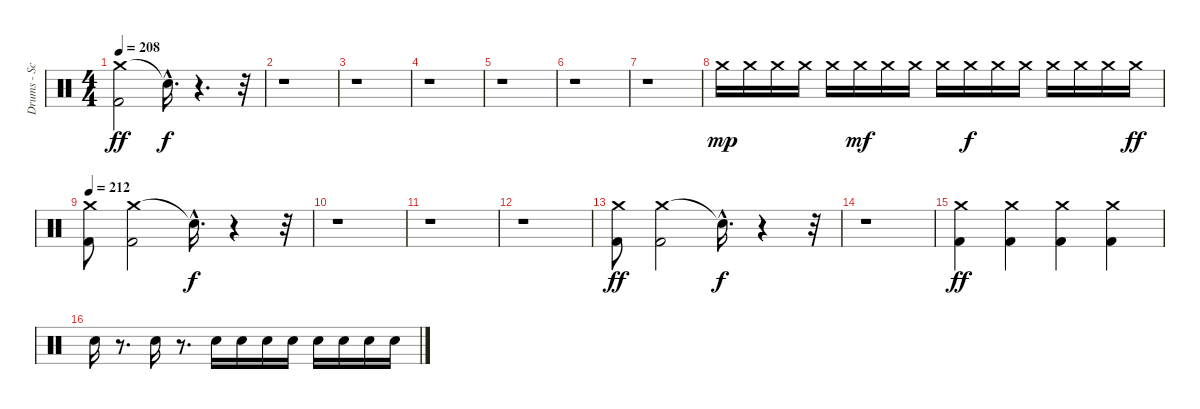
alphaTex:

\track ("Drums - Scott" "Drums - Sc") {instrument percussion}
\staff {score}
\articulation defaults
\ts (4 4)
\tempo 208
\clef neutral
\ks c
("Crash medium (hit)" "Kick (hit) 2").2{dy ff} "Snare (hit)"{hac t}.16{d dy f} r.4{d} r.32 |
r.1 |
r.1 |
r.1 |
r.1 |
r.1 |
r.1 |
"Crash medium (hit)".16{dy mp} "Crash medium (hit)".16 "Crash medium (hit)".16 "Crash medium (hit)".16 "Crash medium (hit)".16 "Crash medium (hit)".16{dy mf} "Crash medium (hit)".16 "Crash medium (hit)".16 "Crash medium (hit)".16 "Crash medium (hit)".16{dy f} "Crash medium (hit)".16 "Crash medium (hit)".16 "Crash medium (hit)".16 "Crash medium (hit)".16 "Crash medium (hit)".16 "Crash medium (hit)".16{dy ff} |
\tempo 212
("Crash medium (hit)" "Kick (hit) 2").8 ("Crash medium (hit)" "Kick (hit) 2").2 "Snare (hit)"{hac t}.16{d dy f} r.4 r.32 |
r.1 |
r.1 |
r.1 |
("Crash medium (hit)" "Kick (hit) 2").8{dy ff} ("Crash medium (hit)" "Kick (hit) 2").2 "Snare (hit)"{hac t}.16{d dy f} r.4 r.32 |
r.1 |
("Kick (hit) 2" "Crash medium (hit)").4{dy ff} ("Kick (hit) 2" "Crash medium (hit)").4 ("Kick (hit) 2" "Crash medium (hit)").4 ("Kick (hit) 2" "Crash medium (hit)").4 |
"Electric Snare (hit)".16 r.8{d} "Electric Snare (hit)".16 r.8{d} "Electric Snare (hit)".16 "Electric Snare (hit)".16 "Electric Snare (hit)".16 "Electric Snare (hit)".16 "Electric Snare (hit)".16 "Electric Snare (hit)".16 "Electric Snare (hit)".16 "Electric Snare (hit)".16
